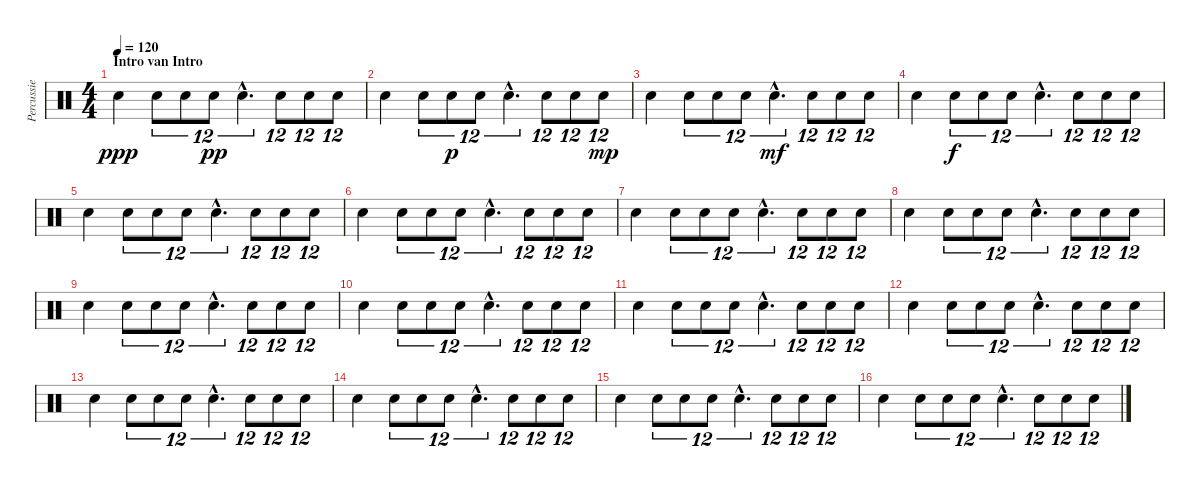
\track ("Percussie" "Percussie") {instrument percussion}
\staff {score}
\articulation defaults
\ts (4 4)
\section ("" "Intro van Intro")
\tempo 120
\clef neutral
\ks c "Snare (hit) 2".4{dy ppp} "Snare (hit) 2".8{tu (12 8)} "Snare (hit) 2".8{tu (12 8)} "Snare (hit) 2".8{tu (12 8) dy pp} "Snare (hit) 2"{hac}.4{d tu (12 8)} "Snare (hit) 2".8{tu (12 8)} "Snare (hit) 2".8{tu (12 8)} "Snare (hit) 2".8{tu (12 8)}
|
"Snare (hit) 2".4 "Snare (hit) 2".8{tu (12 8)} "Snare (hit) 2".8{tu (12 8) dy p} "Snare (hit) 2".8{tu (12 8)} "Snare (hit) 2"{hac}.4{d tu (12 8)} "Snare (hit) 2".8{tu (12 8)} "Snare (hit) 2".8{tu (12 8)} "Snare (hit) 2".8{tu (12 8) dy mp} |
"Snare (hit) 2".4 "Snare (hit) 2".8{tu (12 8)} "Snare (hit) 2".8{tu (12 8)} "Snare (hit) 2".8{tu (12 8)} "Snare (hit) 2"{hac}.4{d tu (12 8) dy mf} "Snare (hit) 2".8{tu (12 8)} "Snare (hit) 2".8{tu (12 8)} "Snare (hit) 2".8{tu (12 8)} |
"Snare (hit) 2".4 "Snare (hit) 2".8{tu (12 8) dy f} "Snare (hit) 2".8{tu (12 8)} "Snare (hit) 2".8{tu (12 8)} "Snare (hit) 2"{hac}.4{d tu (12 8)} "Snare (hit) 2".8{tu (12 8)} "Snare (hit) 2".8{tu (12 8)} "Snare (hit) 2".8{tu (12 8)} |
"Snare (hit) 2".4 "Snare (hit) 2".8{tu (12 8)} "Snare (hit) 2".8{tu (12 8)} "Snare (hit) 2".8{tu (12 8)} "Snare (hit) 2"{hac}.4{d tu (12 8)} "Snare (hit) 2".8{tu (12 8)} "Snare (hit) 2".8{tu (12 8)} "Snare (hit) 2".8{tu (12 8)} |
"Snare (hit) 2".4 "Snare (hit) 2".8{tu (12 8)} "Snare (hit) 2".8{tu (12 8)} "Snare (hit) 2".8{tu (12 8)} "Snare (hit) 2"{hac}.4{d tu (12 8)} "Snare (hit) 2".8{tu (12 8)} "Snare (hit) 2".8{tu (12 8)} "Snare (hit) 2".8{tu (12 8)} |
"Snare (hit) 2".4 "Snare (hit) 2".8{tu (12 8)} "Snare (hit) 2".8{tu (12 8)} "Snare (hit) 2".8{tu (12 8)} "Snare (hit) 2"{hac}.4{d tu (12 8)} "Snare (hit) 2".8{tu (12 8)} "Snare (hit) 2".8{tu (12 8)} "Snare (hit) 2".8{tu (12 8)} |
"Snare (hit) 2".4 "Snare (hit) 2".8{tu (12 8)} "Snare (hit) 2".8{tu (12 8)} "Snare (hit) 2".8{tu (12 8)} "Snare (hit) 2"{hac}.4{d tu (12 8)} "Snare (hit) 2".8{tu (12 8)} "Snare (hit) 2".8{tu (12 8)} "Snare (hit) 2".8{tu (12 8)} |
"Snare (hit) 2".4 "Snare (hit) 2".8{tu (12 8)} "Snare (hit) 2".8{tu (12 8)} "Snare (hit) 2".8{tu (12 8)} "Snare (hit) 2"{hac}.4{d tu (12 8)} "Snare (hit) 2".8{tu (12 8)} "Snare (hit) 2".8{tu (12 8)} "Snare (hit) 2".8{tu (12 8)} |
"Snare (hit) 2".4 "Snare (hit) 2".8{tu (12 8)} "Snare (hit) 2".8{tu (12 8)} "Snare (hit) 2".8{tu (12 8)} "Snare (hit) 2"{hac}.4{d tu (12 8)} "Snare (hit) 2".8{tu (12 8)} "Snare (hit) 2".8{tu (12 8)} "Snare (hit) 2".8{tu (12 8)} |
"Snare (hit) 2".4 "Snare (hit) 2".8{tu (12 8)} "Snare (hit) 2".8{tu (12 8)} "Snare (hit) 2".8{tu (12 8)} "Snare (hit) 2"{hac}.4{d tu (12 8)} "Snare (hit) 2".8{tu (12 8)} "Snare (hit) 2".8{tu (12 8)} "Snare (hit) 2".8{tu (12 8)} |
"Snare (hit) 2".4 "Snare (hit) 2".8{tu (12 8)} "Snare (hit) 2".8{tu (12 8)} "Snare (hit) 2".8{tu (12 8)} "Snare (hit) 2"{hac}.4{d tu (12 8)} "Snare (hit) 2".8{tu (12 8)} "Snare (hit) 2".8{tu (12 8)} "Snare (hit) 2".8{tu (12 8)} |
"Snare (hit) 2".4 "Snare (hit) 2".8{tu (12 8)} "Snare (hit) 2".8{tu (12 8)} "Snare (hit) 2".8{tu (12 8)} "Snare (hit) 2"{hac}.4{d tu (12 8)} "Snare (hit) 2".8{tu (12 8)} "Snare (hit) 2".8{tu (12 8)} "Snare (hit) 2".8{tu (12 8)} |
"Snare (hit) 2".4 "Snare (hit) 2".8{tu (12 8)} "Snare (hit) 2".8{tu (12 8)} "Snare (hit) 2".8{tu (12 8)} "Snare (hit) 2"{hac}.4{d tu (12 8)} "Snare (hit) 2".8{tu (12 8)} "Snare (hit) 2".8{tu (12 8)} "Snare (hit) 2".8{tu (12 8)} |
"Snare (hit) 2".4 "Snare (hit) 2".8{tu (12 8)} "Snare (hit) 2".8{tu (12 8)} "Snare (hit) 2".8{tu (12 8)} "Snare (hit) 2"{hac}.4{d tu (12 8)} "Snare (hit) 2".8{tu (12 8)} "Snare (hit) 2".8{tu (12 8)} "Snare (hit) 2".8{tu (12 8)} |
"Snare (hit) 2".4 "Snare (hit) 2".8{tu (12 8)} "Snare (hit) 2".8{tu (12 8)} "Snare (hit) 2".8{tu (12 8)} "Snare (hit) 2"{hac}.4{d tu (12 8)} "Snare (hit) 2".8{tu (12 8)} "Snare (hit) 2".8{tu (12 8)} "Snare (hit) 2".8{tu (12 8)}
